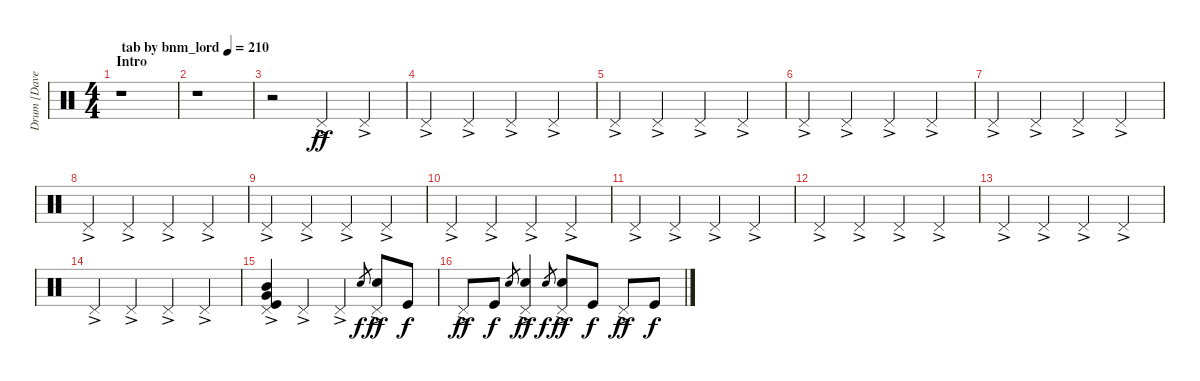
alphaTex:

\track ("Drum [Dave Grohl]" "Drum [Dave") {instrument percussion bank 84}
\staff {score}
\articulation defaults
\ts (4 4)
\section ("" "Intro")
\tempo (210 "tab by bnm_lord")
\clef neutral
\ks c
r.1{dy ff} |
r.1 |
r.2 "Pedal Hi-Hat (hit)"{ac}.4 "Pedal Hi-Hat (hit)"{ac}.4 |
"Pedal Hi-Hat (hit)"{ac}.4 "Pedal Hi-Hat (hit)"{ac}.4 "Pedal Hi-Hat (hit)"{ac}.4 "Pedal Hi-Hat (hit)"{ac}.4 |
"Pedal Hi-Hat (hit)"{ac}.4 "Pedal Hi-Hat (hit)"{ac}.4 "Pedal Hi-Hat (hit)"{ac}.4 "Pedal Hi-Hat (hit)"{ac}.4 |
"Pedal Hi-Hat (hit)"{ac}.4 "Pedal Hi-Hat (hit)"{ac}.4 "Pedal Hi-Hat (hit)"{ac}.4 "Pedal Hi-Hat (hit)"{ac}.4 |
"Pedal Hi-Hat (hit)"{ac}.4 "Pedal Hi-Hat (hit)"{ac}.4 "Pedal Hi-Hat (hit)"{ac}.4 "Pedal Hi-Hat (hit)"{ac}.4 |
"Pedal Hi-Hat (hit)"{ac}.4 "Pedal Hi-Hat (hit)"{ac}.4 "Pedal Hi-Hat (hit)"{ac}.4 "Pedal Hi-Hat (hit)"{ac}.4 |
"Pedal Hi-Hat (hit)"{ac}.4 "Pedal Hi-Hat (hit)"{ac}.4 "Pedal Hi-Hat (hit)"{ac}.4 "Pedal Hi-Hat (hit)"{ac}.4 |
"Pedal Hi-Hat (hit)"{ac}.4 "Pedal Hi-Hat (hit)"{ac}.4 "Pedal Hi-Hat (hit)"{ac}.4 "Pedal Hi-Hat (hit)"{ac}.4 |
"Pedal Hi-Hat (hit)"{ac}.4 "Pedal Hi-Hat (hit)"{ac}.4 "Pedal Hi-Hat (hit)"{ac}.4 "Pedal Hi-Hat (hit)"{ac}.4 |
"Pedal Hi-Hat (hit)"{ac}.4 "Pedal Hi-Hat (hit)"{ac}.4 "Pedal Hi-Hat (hit)"{ac}.4 "Pedal Hi-Hat (hit)"{ac}.4 |
"Pedal Hi-Hat (hit)"{ac}.4 "Pedal Hi-Hat (hit)"{ac}.4 "Pedal Hi-Hat (hit)"{ac}.4 "Pedal Hi-Hat (hit)"{ac}.4 |
"Pedal Hi-Hat (hit)"{ac}.4 "Pedal Hi-Hat (hit)"{ac}.4 "Pedal Hi-Hat (hit)"{ac}.4 "Pedal Hi-Hat (hit)"{ac}.4 |
("Pedal Hi-Hat (hit)"{ac} "Mid Tom (hit)" "Very Low Tom (hit)" "Kick (hit)").4 "Pedal Hi-Hat (hit)"{ac}.4 "Pedal Hi-Hat (hit)"{ac}.4 "Electric Snare (hit)".8{gr dy f} ("Pedal Hi-Hat (hit)"{ac} "Electric Snare (hit)").8{dy ff} "Kick (hit)".8{dy f} |
"Pedal Hi-Hat (hit)"{ac}.8{dy ff} "Kick (hit)".8{dy f} "Electric Snare (hit)".8{gr} ("Pedal Hi-Hat (hit)"{ac} "Electric Snare (hit)").4{dy ff} "Electric Snare (hit)".8{gr dy f} ("Pedal Hi-Hat (hit)"{ac} "Electric Snare (hit)").8{dy ff} "Kick (hit)".8{dy f} "Pedal Hi-Hat (hit)"{ac}.8{dy ff} "Kick (hit)".8{dy f}
